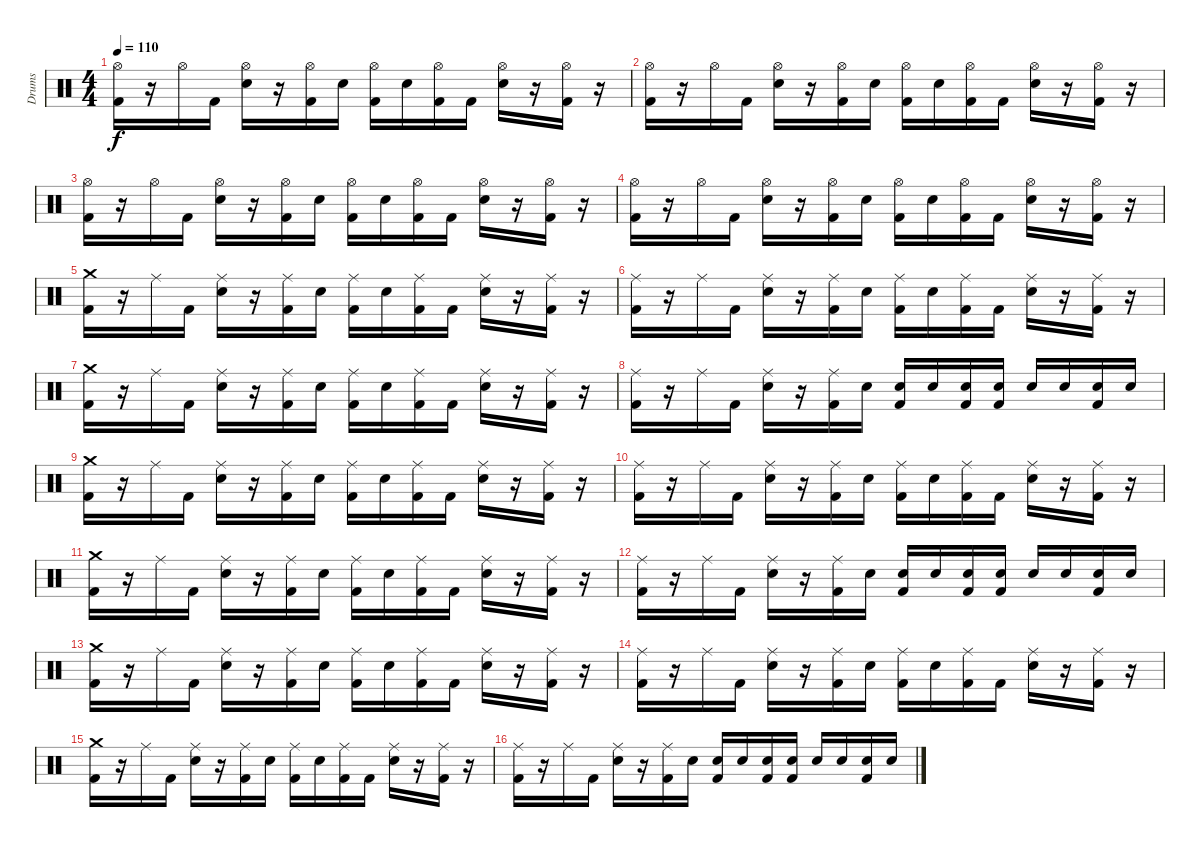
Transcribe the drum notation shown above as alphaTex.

\track ("Drums" "Drums") {instrument percussion}
\staff {score}
\articulation defaults
\ts (4 4)
\tempo 110
\clef neutral
\ks c
("Hi-Hat (open)" "Kick (hit) 2").16{dy f} r.16 "Hi-Hat (open)".16 "Kick (hit) 2".16 ("Hi-Hat (open)" "Electric Snare (hit)").16 r.16 ("Hi-Hat (open)" "Kick (hit) 2").16 "Electric Snare (hit)".16 ("Hi-Hat (open)" "Kick (hit) 2").16 "Electric Snare (hit)".16 ("Hi-Hat (open)" "Kick (hit) 2").16 "Kick (hit) 2".16 ("Hi-Hat (open)" "Electric Snare (hit)").16 r.16 ("Hi-Hat (open)" "Kick (hit) 2").16 r.16 |
("Kick (hit) 2" "Hi-Hat (open)").16 r.16 "Hi-Hat (open)".16 "Kick (hit) 2".16 ("Hi-Hat (open)" "Electric Snare (hit)").16 r.16 ("Hi-Hat (open)" "Kick (hit) 2").16 "Electric Snare (hit)".16 ("Hi-Hat (open)" "Kick (hit) 2").16 "Electric Snare (hit)".16 ("Hi-Hat (open)" "Kick (hit) 2").16 "Kick (hit) 2".16 ("Hi-Hat (open)" "Electric Snare (hit)").16 r.16 ("Hi-Hat (open)" "Kick (hit) 2").16 r.16 |
("Kick (hit) 2" "Hi-Hat (open)").16 r.16 "Hi-Hat (open)".16 "Kick (hit) 2".16 ("Hi-Hat (open)" "Electric Snare (hit)").16 r.16 ("Hi-Hat (open)" "Kick (hit) 2").16 "Electric Snare (hit)".16 ("Hi-Hat (open)" "Kick (hit) 2").16 "Electric Snare (hit)".16 ("Hi-Hat (open)" "Kick (hit) 2").16 "Kick (hit) 2".16 ("Hi-Hat (open)" "Electric Snare (hit)").16 r.16 ("Hi-Hat (open)" "Kick (hit) 2").16 r.16 |
("Kick (hit) 2" "Hi-Hat (open)").16 r.16 "Hi-Hat (open)".16 "Kick (hit) 2".16 ("Hi-Hat (open)" "Electric Snare (hit)").16 r.16 ("Hi-Hat (open)" "Kick (hit) 2").16 "Electric Snare (hit)".16 ("Hi-Hat (open)" "Kick (hit) 2").16 "Electric Snare (hit)".16 ("Hi-Hat (open)" "Kick (hit) 2").16 "Kick (hit) 2".16 ("Hi-Hat (open)" "Electric Snare (hit)").16 r.16 ("Hi-Hat (open)" "Kick (hit) 2").16 r.16 |
("Kick (hit) 2" "Crash medium (hit)").16 r.16 "Ride (middle)".16 "Kick (hit) 2".16 ("Electric Snare (hit)" "Ride (middle)").16 r.16 ("Kick (hit) 2" "Ride (middle)").16 "Electric Snare (hit)".16 ("Kick (hit) 2" "Ride (middle)").16 "Electric Snare (hit)".16 ("Kick (hit) 2" "Ride (middle)").16 "Kick (hit) 2".16 ("Electric Snare (hit)" "Ride (middle)").16 r.16 ("Kick (hit) 2" "Ride (middle)").16 r.16 |
("Kick (hit) 2" "Ride (middle)").16 r.16 "Ride (middle)".16 "Kick (hit) 2".16 ("Electric Snare (hit)" "Ride (middle)").16 r.16 ("Kick (hit) 2" "Ride (middle)").16 "Electric Snare (hit)".16 ("Kick (hit) 2" "Ride (middle)").16 "Electric Snare (hit)".16 ("Kick (hit) 2" "Ride (middle)").16 "Kick (hit) 2".16 ("Electric Snare (hit)" "Ride (middle)").16 r.16 ("Kick (hit) 2" "Ride (middle)").16 r.16 |
("Kick (hit) 2" "Crash medium (hit)").16 r.16 "Ride (middle)".16 "Kick (hit) 2".16 ("Electric Snare (hit)" "Ride (middle)").16 r.16 ("Kick (hit) 2" "Ride (middle)").16 "Electric Snare (hit)".16 ("Kick (hit) 2" "Ride (middle)").16 "Electric Snare (hit)".16 ("Kick (hit) 2" "Ride (middle)").16 "Kick (hit) 2".16 ("Electric Snare (hit)" "Ride (middle)").16 r.16 ("Kick (hit) 2" "Ride (middle)").16 r.16 |
("Kick (hit) 2" "Ride (middle)").16 r.16 "Ride (middle)".16 "Kick (hit) 2".16 ("Electric Snare (hit)" "Ride (middle)").16 r.16 ("Kick (hit) 2" "Ride (middle)").16 "Electric Snare (hit)".16 ("Kick (hit) 2" "Electric Snare (hit)").16 "Electric Snare (hit)".16 ("Kick (hit) 2" "Electric Snare (hit)").16 ("Kick (hit) 2" "Electric Snare (hit)").16 "Electric Snare (hit)".16 "Electric Snare (hit)".16 ("Kick (hit) 2" "Electric Snare (hit)").16 "Electric Snare (hit)".16 |
("Crash medium (hit)" "Kick (hit) 2").16 r.16 "Ride (middle)".16 "Kick (hit) 2".16 ("Electric Snare (hit)" "Ride (middle)").16 r.16 ("Kick (hit) 2" "Ride (middle)").16 "Electric Snare (hit)".16 ("Kick (hit) 2" "Ride (middle)").16 "Electric Snare (hit)".16 ("Kick (hit) 2" "Ride (middle)").16 "Kick (hit) 2".16 ("Electric Snare (hit)" "Ride (middle)").16 r.16 ("Kick (hit) 2" "Ride (middle)").16 r.16 |
("Kick (hit) 2" "Ride (middle)").16 r.16 "Ride (middle)".16 "Kick (hit) 2".16 ("Electric Snare (hit)" "Ride (middle)").16 r.16 ("Kick (hit) 2" "Ride (middle)").16 "Electric Snare (hit)".16 ("Kick (hit) 2" "Ride (middle)").16 "Electric Snare (hit)".16 ("Kick (hit) 2" "Ride (middle)").16 "Kick (hit) 2".16 ("Electric Snare (hit)" "Ride (middle)").16 r.16 ("Kick (hit) 2" "Ride (middle)").16 r.16 |
("Kick (hit) 2" "Crash medium (hit)").16 r.16 "Ride (middle)".16 "Kick (hit) 2".16 ("Electric Snare (hit)" "Ride (middle)").16 r.16 ("Kick (hit) 2" "Ride (middle)").16 "Electric Snare (hit)".16 ("Kick (hit) 2" "Ride (middle)").16 "Electric Snare (hit)".16 ("Kick (hit) 2" "Ride (middle)").16 "Kick (hit) 2".16 ("Electric Snare (hit)" "Ride (middle)").16 r.16 ("Kick (hit) 2" "Ride (middle)").16 r.16 |
("Kick (hit) 2" "Ride (middle)").16 r.16 "Ride (middle)".16 "Kick (hit) 2".16 ("Electric Snare (hit)" "Ride (middle)").16 r.16 ("Kick (hit) 2" "Ride (middle)").16 "Electric Snare (hit)".16 ("Kick (hit) 2" "Electric Snare (hit)").16 "Electric Snare (hit)".16 ("Kick (hit) 2" "Electric Snare (hit)").16 ("Kick (hit) 2" "Electric Snare (hit)").16 "Electric Snare (hit)".16 "Electric Snare (hit)".16 ("Kick (hit) 2" "Electric Snare (hit)").16 "Electric Snare (hit)".16 |
("Crash medium (hit)" "Kick (hit) 2").16 r.16 "Ride (middle)".16 "Kick (hit) 2".16 ("Electric Snare (hit)" "Ride (middle)").16 r.16 ("Kick (hit) 2" "Ride (middle)").16 "Electric Snare (hit)".16 ("Kick (hit) 2" "Ride (middle)").16 "Electric Snare (hit)".16 ("Kick (hit) 2" "Ride (middle)").16 "Kick (hit) 2".16 ("Electric Snare (hit)" "Ride (middle)").16 r.16 ("Kick (hit) 2" "Ride (middle)").16 r.16 |
("Kick (hit) 2" "Ride (middle)").16 r.16 "Ride (middle)".16 "Kick (hit) 2".16 ("Electric Snare (hit)" "Ride (middle)").16 r.16 ("Kick (hit) 2" "Ride (middle)").16 "Electric Snare (hit)".16 ("Kick (hit) 2" "Ride (middle)").16 "Electric Snare (hit)".16 ("Kick (hit) 2" "Ride (middle)").16 "Kick (hit) 2".16 ("Electric Snare (hit)" "Ride (middle)").16 r.16 ("Kick (hit) 2" "Ride (middle)").16 r.16 |
("Kick (hit) 2" "Crash medium (hit)").16 r.16 "Ride (middle)".16 "Kick (hit) 2".16 ("Electric Snare (hit)" "Ride (middle)").16 r.16 ("Kick (hit) 2" "Ride (middle)").16 "Electric Snare (hit)".16 ("Kick (hit) 2" "Ride (middle)").16 "Electric Snare (hit)".16 ("Kick (hit) 2" "Ride (middle)").16 "Kick (hit) 2".16 ("Electric Snare (hit)" "Ride (middle)").16 r.16 ("Kick (hit) 2" "Ride (middle)").16 r.16 |
("Kick (hit) 2" "Ride (middle)").16 r.16 "Ride (middle)".16 "Kick (hit) 2".16 ("Electric Snare (hit)" "Ride (middle)").16 r.16 ("Kick (hit) 2" "Ride (middle)").16 "Electric Snare (hit)".16 ("Kick (hit) 2" "Electric Snare (hit)").16 "Electric Snare (hit)".16 ("Kick (hit) 2" "Electric Snare (hit)").16 ("Kick (hit) 2" "Electric Snare (hit)").16 "Electric Snare (hit)".16 "Electric Snare (hit)".16 ("Kick (hit) 2" "Electric Snare (hit)").16 "Electric Snare (hit)".16
